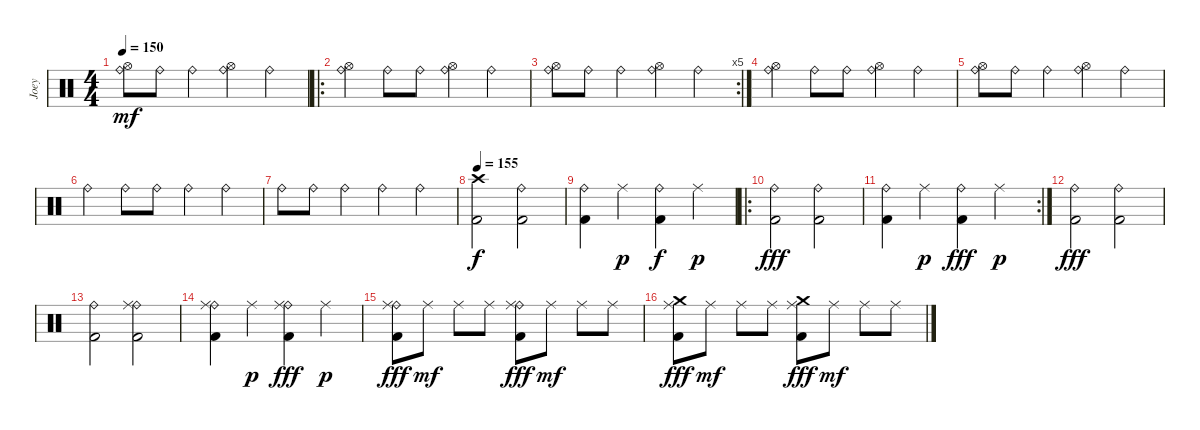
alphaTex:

\track ("Joey" "Joey") {instrument percussion}
\staff {score}
\articulation defaults
\ts (4 4)
\tempo 150
\clef neutral
\ks c
("Ride (bell)" "Hi-Hat (open)").8{dy mf} "Ride (bell)".8 "Ride (bell)".4 ("Ride (bell)" "Hi-Hat (open)").4 "Ride (bell)".4 |
\ro
("Ride (bell)" "Hi-Hat (open)").4 "Ride (bell)".8 "Ride (bell)".8 ("Ride (bell)" "Hi-Hat (open)").4 "Ride (bell)".4 |
\rc 5
("Ride (bell)" "Hi-Hat (open)").8 "Ride (bell)".8 "Ride (bell)".4 ("Ride (bell)" "Hi-Hat (open)").4 "Ride (bell)".4 |
("Ride (bell)" "Hi-Hat (open)").4 "Ride (bell)".8 "Ride (bell)".8 ("Ride (bell)" "Hi-Hat (open)").4 "Ride (bell)".4 |
("Ride (bell)" "Hi-Hat (open)").8 "Ride (bell)".8 "Ride (bell)".4 ("Ride (bell)" "Hi-Hat (open)").4 "Ride (bell)".4 |
"Ride (bell)".4 "Ride (bell)".8 "Ride (bell)".8 "Ride (bell)".4 "Ride (bell)".4 |
"Ride (bell)".8 "Ride (bell)".8 "Ride (bell)".4 "Ride (bell)".4 "Ride (bell)".4 |
\tempo 155
("Crash high (hit)" "Kick (hit) 2").2{dy f} ("Ride (bell)" "Kick (hit) 2").2 |
("Ride (bell)" "Kick (hit) 2").4 "Ride (middle)".4{dy p} ("Ride (bell)" "Kick (hit) 2").4{dy f} "Ride (middle)".4{dy p} |
\ro
("Ride (bell)" "Kick (hit) 2").2{dy fff} ("Ride (bell)" "Kick (hit) 2").2 |
\rc 2
("Ride (bell)" "Kick (hit) 2").4 "Ride (middle)".4{dy p} ("Ride (bell)" "Kick (hit) 2").4{dy fff} "Ride (middle)".4{dy p} |
("Ride (bell)" "Kick (hit) 2").2{dy fff} ("Ride (bell)" "Kick (hit) 2").2 |
("Ride (bell)" "Kick (hit) 2").2 ("Ride (bell)" "Ride (middle)" "Kick (hit) 2").2 |
("Ride (bell)" "Ride (middle)" "Kick (hit) 2").4 "Ride (middle)".4{dy p} ("Ride (bell)" "Ride (middle)" "Kick (hit) 2").4{dy fff} "Ride (middle)".4{dy p} |
("Ride (bell)" "Ride (middle)" "Kick (hit) 2").8{dy fff} "Ride (middle)".8{dy mf} "Ride (middle)".8 "Ride (middle)".8 ("Ride (bell)" "Ride (middle)" "Kick (hit) 2").8{dy fff} "Ride (middle)".8{dy mf} "Ride (middle)".8 "Ride (middle)".8 |
("Crash medium (hit)" "Ride (middle)" "Kick (hit) 2").8{dy fff} "Ride (middle)".8{dy mf} "Ride (middle)".8 "Ride (middle)".8 ("Crash medium (hit)" "Ride (middle)" "Kick (hit) 2").8{dy fff} "Ride (middle)".8{dy mf} "Ride (middle)".8 "Ride (middle)".8
